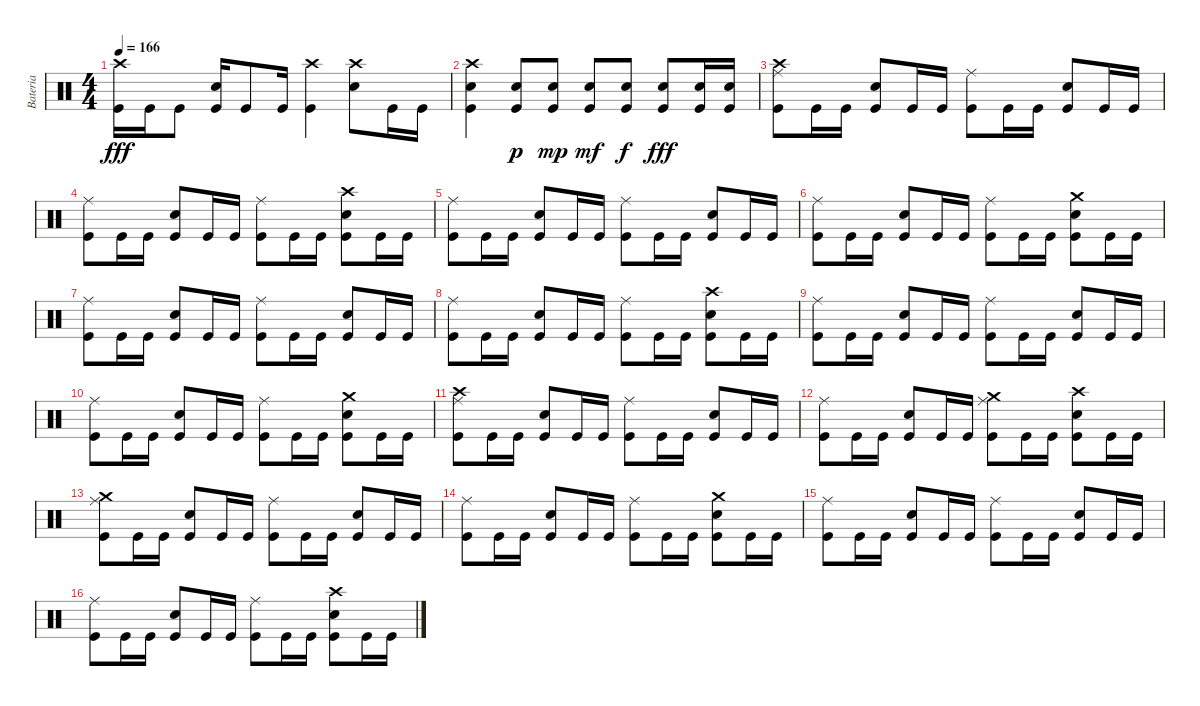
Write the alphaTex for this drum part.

\track ("Bateria" "Bateria") {instrument percussion}
\staff {score}
\articulation defaults
\ts (4 4)
\tempo 166
\clef neutral
\ks c
("Crash high (hit)" "Kick (hit)").16{dy fff} "Kick (hit)".16 "Kick (hit)".8 ("Snare (hit) 2" "Kick (hit)").16 "Kick (hit)".8 "Kick (hit)".16 ("Kick (hit)" "Crash high (hit)").4 ("Snare (hit) 2" "Crash high (hit)").8 "Kick (hit)".16 "Kick (hit)".16 |
("Crash high (hit)" "Snare (hit) 2" "Kick (hit)").4 ("Kick (hit)" "Snare (hit) 2").8{dy p} ("Kick (hit)" "Snare (hit) 2").8{dy mp} ("Kick (hit)" "Snare (hit) 2").8{dy mf} ("Kick (hit)" "Snare (hit) 2").8{dy f} ("Kick (hit)" "Snare (hit) 2").8{dy fff} ("Snare (hit) 2" "Kick (hit)").16 ("Snare (hit) 2" "Kick (hit)").16 |
("Ride (middle)" "Kick (hit)" "Crash high (hit)").8 "Kick (hit)".16 "Kick (hit)".16 ("Snare (hit) 2" "Kick (hit)").8 "Kick (hit)".16 "Kick (hit)".16 ("Ride (middle)" "Kick (hit)").8 "Kick (hit)".16 "Kick (hit)".16 ("Snare (hit) 2" "Kick (hit)").8 "Kick (hit)".16 "Kick (hit)".16 |
("Ride (middle)" "Kick (hit)").8 "Kick (hit)".16 "Kick (hit)".16 ("Snare (hit) 2" "Kick (hit)").8 "Kick (hit)".16 "Kick (hit)".16 ("Ride (middle)" "Kick (hit)").8 "Kick (hit)".16 "Kick (hit)".16 ("Snare (hit) 2" "Kick (hit)" "Crash high (hit)").8 "Kick (hit)".16 "Kick (hit)".16 |
("Ride (middle)" "Kick (hit)").8 "Kick (hit)".16 "Kick (hit)".16 ("Snare (hit) 2" "Kick (hit)").8 "Kick (hit)".16 "Kick (hit)".16 ("Ride (middle)" "Kick (hit)").8 "Kick (hit)".16 "Kick (hit)".16 ("Snare (hit) 2" "Kick (hit)").8 "Kick (hit)".16 "Kick (hit)".16 |
("Ride (middle)" "Kick (hit)").8 "Kick (hit)".16 "Kick (hit)".16 ("Snare (hit) 2" "Kick (hit)").8 "Kick (hit)".16 "Kick (hit)".16 ("Ride (middle)" "Kick (hit)").8 "Kick (hit)".16 "Kick (hit)".16 ("Snare (hit) 2" "Kick (hit)" "Crash medium (hit)").8 "Kick (hit)".16 "Kick (hit)".16 |
("Ride (middle)" "Kick (hit)").8 "Kick (hit)".16 "Kick (hit)".16 ("Snare (hit) 2" "Kick (hit)").8 "Kick (hit)".16 "Kick (hit)".16 ("Ride (middle)" "Kick (hit)").8 "Kick (hit)".16 "Kick (hit)".16 ("Snare (hit) 2" "Kick (hit)").8 "Kick (hit)".16 "Kick (hit)".16 |
("Ride (middle)" "Kick (hit)").8 "Kick (hit)".16 "Kick (hit)".16 ("Snare (hit) 2" "Kick (hit)").8 "Kick (hit)".16 "Kick (hit)".16 ("Ride (middle)" "Kick (hit)").8 "Kick (hit)".16 "Kick (hit)".16 ("Snare (hit) 2" "Kick (hit)" "Crash high (hit)").8 "Kick (hit)".16 "Kick (hit)".16 |
("Ride (middle)" "Kick (hit)").8 "Kick (hit)".16 "Kick (hit)".16 ("Snare (hit) 2" "Kick (hit)").8 "Kick (hit)".16 "Kick (hit)".16 ("Ride (middle)" "Kick (hit)").8 "Kick (hit)".16 "Kick (hit)".16 ("Snare (hit) 2" "Kick (hit)").8 "Kick (hit)".16 "Kick (hit)".16 |
("Ride (middle)" "Kick (hit)").8 "Kick (hit)".16 "Kick (hit)".16 ("Snare (hit) 2" "Kick (hit)").8 "Kick (hit)".16 "Kick (hit)".16 ("Ride (middle)" "Kick (hit)").8 "Kick (hit)".16 "Kick (hit)".16 ("Snare (hit) 2" "Kick (hit)" "Crash medium (hit)").8 "Kick (hit)".16 "Kick (hit)".16 |
("Ride (middle)" "Kick (hit)" "Crash high (hit)").8 "Kick (hit)".16 "Kick (hit)".16 ("Snare (hit) 2" "Kick (hit)").8 "Kick (hit)".16 "Kick (hit)".16 ("Ride (middle)" "Kick (hit)").8 "Kick (hit)".16 "Kick (hit)".16 ("Snare (hit) 2" "Kick (hit)").8 "Kick (hit)".16 "Kick (hit)".16 |
("Ride (middle)" "Kick (hit)").8 "Kick (hit)".16 "Kick (hit)".16 ("Snare (hit) 2" "Kick (hit)").8 "Kick (hit)".16 "Kick (hit)".16 ("Ride (middle)" "Kick (hit)" "Crash medium (hit)").8 "Kick (hit)".16 "Kick (hit)".16 ("Snare (hit) 2" "Kick (hit)" "Crash high (hit)").8 "Kick (hit)".16 "Kick (hit)".16 |
("Ride (middle)" "Kick (hit)" "Crash medium (hit)").8 "Kick (hit)".16 "Kick (hit)".16 ("Snare (hit) 2" "Kick (hit)").8 "Kick (hit)".16 "Kick (hit)".16 ("Ride (middle)" "Kick (hit)").8 "Kick (hit)".16 "Kick (hit)".16 ("Snare (hit) 2" "Kick (hit)").8 "Kick (hit)".16 "Kick (hit)".16 |
("Ride (middle)" "Kick (hit)").8 "Kick (hit)".16 "Kick (hit)".16 ("Snare (hit) 2" "Kick (hit)").8 "Kick (hit)".16 "Kick (hit)".16 ("Ride (middle)" "Kick (hit)").8 "Kick (hit)".16 "Kick (hit)".16 ("Snare (hit) 2" "Kick (hit)" "Crash medium (hit)").8 "Kick (hit)".16 "Kick (hit)".16 |
("Ride (middle)" "Kick (hit)").8 "Kick (hit)".16 "Kick (hit)".16 ("Snare (hit) 2" "Kick (hit)").8 "Kick (hit)".16 "Kick (hit)".16 ("Ride (middle)" "Kick (hit)").8 "Kick (hit)".16 "Kick (hit)".16 ("Snare (hit) 2" "Kick (hit)").8 "Kick (hit)".16 "Kick (hit)".16 |
("Ride (middle)" "Kick (hit)").8 "Kick (hit)".16 "Kick (hit)".16 ("Snare (hit) 2" "Kick (hit)").8 "Kick (hit)".16 "Kick (hit)".16 ("Ride (middle)" "Kick (hit)").8 "Kick (hit)".16 "Kick (hit)".16 ("Snare (hit) 2" "Kick (hit)" "Crash high (hit)").8 "Kick (hit)".16 "Kick (hit)".16
